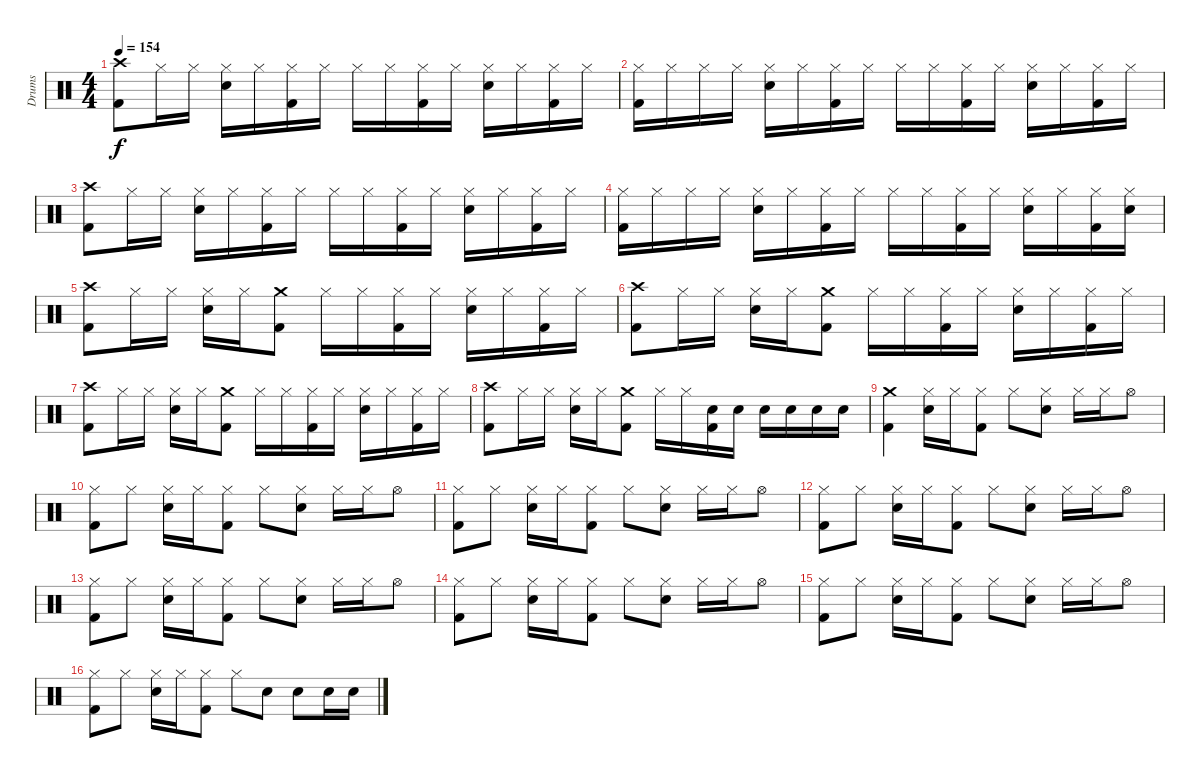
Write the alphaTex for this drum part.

\track ("Drums" "Drums") {instrument percussion}
\staff {score}
\articulation defaults
\ts (4 4)
\tempo 154
\clef neutral
\ks c
("Crash high (hit)" "Kick (hit) 2").8{dy f} "Hi-Hat (closed)".16 "Hi-Hat (closed)".16 ("Hi-Hat (closed)" "Electric Snare (hit)").16 "Hi-Hat (closed)".16 ("Kick (hit) 2" "Hi-Hat (closed)").16 "Hi-Hat (closed)".16 "Hi-Hat (closed)".16 "Hi-Hat (closed)".16 ("Kick (hit) 2" "Hi-Hat (closed)").16 "Hi-Hat (closed)".16 ("Electric Snare (hit)" "Hi-Hat (closed)").16 "Hi-Hat (closed)".16 ("Kick (hit) 2" "Hi-Hat (closed)").16 "Hi-Hat (closed)".16 |
("Hi-Hat (closed)" "Kick (hit) 2").16 "Hi-Hat (closed)".16 "Hi-Hat (closed)".16 "Hi-Hat (closed)".16 ("Hi-Hat (closed)" "Electric Snare (hit)").16 "Hi-Hat (closed)".16 ("Kick (hit) 2" "Hi-Hat (closed)").16 "Hi-Hat (closed)".16 "Hi-Hat (closed)".16 "Hi-Hat (closed)".16 ("Kick (hit) 2" "Hi-Hat (closed)").16 "Hi-Hat (closed)".16 ("Electric Snare (hit)" "Hi-Hat (closed)").16 "Hi-Hat (closed)".16 ("Kick (hit) 2" "Hi-Hat (closed)").16 "Hi-Hat (closed)".16 |
("Crash high (hit)" "Kick (hit) 2").8 "Hi-Hat (closed)".16 "Hi-Hat (closed)".16 ("Hi-Hat (closed)" "Electric Snare (hit)").16 "Hi-Hat (closed)".16 ("Kick (hit) 2" "Hi-Hat (closed)").16 "Hi-Hat (closed)".16 "Hi-Hat (closed)".16 "Hi-Hat (closed)".16 ("Kick (hit) 2" "Hi-Hat (closed)").16 "Hi-Hat (closed)".16 ("Electric Snare (hit)" "Hi-Hat (closed)").16 "Hi-Hat (closed)".16 ("Kick (hit) 2" "Hi-Hat (closed)").16 "Hi-Hat (closed)".16 |
("Hi-Hat (closed)" "Kick (hit) 2").16 "Hi-Hat (closed)".16 "Hi-Hat (closed)".16 "Hi-Hat (closed)".16 ("Hi-Hat (closed)" "Electric Snare (hit)").16 "Hi-Hat (closed)".16 ("Kick (hit) 2" "Hi-Hat (closed)").16 "Hi-Hat (closed)".16 "Hi-Hat (closed)".16 "Hi-Hat (closed)".16 ("Kick (hit) 2" "Hi-Hat (closed)").16 "Hi-Hat (closed)".16 ("Hi-Hat (closed)" "Electric Snare (hit)").16 "Hi-Hat (closed)".16 ("Hi-Hat (closed)" "Kick (hit) 2").16 ("Electric Snare (hit)" "Hi-Hat (closed)").16 |
("Crash high (hit)" "Kick (hit) 2").8 "Hi-Hat (closed)".16 "Hi-Hat (closed)".16 ("Hi-Hat (closed)" "Electric Snare (hit)").16 "Hi-Hat (closed)".16 ("Crash medium (hit)" "Kick (hit) 2").8 "Hi-Hat (closed)".16 "Hi-Hat (closed)".16 ("Kick (hit) 2" "Hi-Hat (closed)").16 "Hi-Hat (closed)".16 ("Electric Snare (hit)" "Hi-Hat (closed)").16 "Hi-Hat (closed)".16 ("Kick (hit) 2" "Hi-Hat (closed)").16 "Hi-Hat (closed)".16 |
("Crash high (hit)" "Kick (hit) 2").8 "Hi-Hat (closed)".16 "Hi-Hat (closed)".16 ("Hi-Hat (closed)" "Electric Snare (hit)").16 "Hi-Hat (closed)".16 ("Crash medium (hit)" "Kick (hit) 2").8 "Hi-Hat (closed)".16 "Hi-Hat (closed)".16 ("Kick (hit) 2" "Hi-Hat (closed)").16 "Hi-Hat (closed)".16 ("Electric Snare (hit)" "Hi-Hat (closed)").16 "Hi-Hat (closed)".16 ("Kick (hit) 2" "Hi-Hat (closed)").16 "Hi-Hat (closed)".16 |
("Crash high (hit)" "Kick (hit) 2").8 "Hi-Hat (closed)".16 "Hi-Hat (closed)".16 ("Hi-Hat (closed)" "Electric Snare (hit)").16 "Hi-Hat (closed)".16 ("Crash medium (hit)" "Kick (hit) 2").8 "Hi-Hat (closed)".16 "Hi-Hat (closed)".16 ("Kick (hit) 2" "Hi-Hat (closed)").16 "Hi-Hat (closed)".16 ("Electric Snare (hit)" "Hi-Hat (closed)").16 "Hi-Hat (closed)".16 ("Kick (hit) 2" "Hi-Hat (closed)").16 "Hi-Hat (closed)".16 |
("Crash high (hit)" "Kick (hit) 2").8 "Hi-Hat (closed)".16 "Hi-Hat (closed)".16 ("Hi-Hat (closed)" "Electric Snare (hit)").16 "Hi-Hat (closed)".16 ("Crash medium (hit)" "Kick (hit) 2").8 "Hi-Hat (closed)".16 "Hi-Hat (closed)".16 ("Kick (hit) 2" "Electric Snare (hit)").16 "Electric Snare (hit)".16 "Electric Snare (hit)".16 "Electric Snare (hit)".16 "Electric Snare (hit)".16 "Electric Snare (hit)".16 |
("Kick (hit) 2" "Crash medium (hit)").4 ("Hi-Hat (closed)" "Electric Snare (hit)").16 "Hi-Hat (closed)".16 ("Hi-Hat (closed)" "Kick (hit) 2").8 "Hi-Hat (closed)".8 ("Hi-Hat (closed)" "Electric Snare (hit)").8 "Hi-Hat (closed)".16 "Hi-Hat (closed)".16 "Hi-Hat (open)".8 |
("Hi-Hat (closed)" "Kick (hit) 2").8 "Hi-Hat (closed)".8 ("Hi-Hat (closed)" "Electric Snare (hit)").16 "Hi-Hat (closed)".16 ("Hi-Hat (closed)" "Kick (hit) 2").8 "Hi-Hat (closed)".8 ("Hi-Hat (closed)" "Electric Snare (hit)").8 "Hi-Hat (closed)".16 "Hi-Hat (closed)".16 "Hi-Hat (open)".8 |
("Hi-Hat (closed)" "Kick (hit) 2").8 "Hi-Hat (closed)".8 ("Hi-Hat (closed)" "Electric Snare (hit)").16 "Hi-Hat (closed)".16 ("Hi-Hat (closed)" "Kick (hit) 2").8 "Hi-Hat (closed)".8 ("Hi-Hat (closed)" "Electric Snare (hit)").8 "Hi-Hat (closed)".16 "Hi-Hat (closed)".16 "Hi-Hat (open)".8 |
("Hi-Hat (closed)" "Kick (hit) 2").8 "Hi-Hat (closed)".8 ("Hi-Hat (closed)" "Electric Snare (hit)").16 "Hi-Hat (closed)".16 ("Hi-Hat (closed)" "Kick (hit) 2").8 "Hi-Hat (closed)".8 ("Hi-Hat (closed)" "Electric Snare (hit)").8 "Hi-Hat (closed)".16 "Hi-Hat (closed)".16 "Hi-Hat (open)".8 |
("Hi-Hat (closed)" "Kick (hit) 2").8 "Hi-Hat (closed)".8 ("Hi-Hat (closed)" "Electric Snare (hit)").16 "Hi-Hat (closed)".16 ("Hi-Hat (closed)" "Kick (hit) 2").8 "Hi-Hat (closed)".8 ("Hi-Hat (closed)" "Electric Snare (hit)").8 "Hi-Hat (closed)".16 "Hi-Hat (closed)".16 "Hi-Hat (open)".8 |
("Hi-Hat (closed)" "Kick (hit) 2").8 "Hi-Hat (closed)".8 ("Hi-Hat (closed)" "Electric Snare (hit)").16 "Hi-Hat (closed)".16 ("Hi-Hat (closed)" "Kick (hit) 2").8 "Hi-Hat (closed)".8 ("Hi-Hat (closed)" "Electric Snare (hit)").8 "Hi-Hat (closed)".16 "Hi-Hat (closed)".16 "Hi-Hat (open)".8 |
("Hi-Hat (closed)" "Kick (hit) 2").8 "Hi-Hat (closed)".8 ("Hi-Hat (closed)" "Electric Snare (hit)").16 "Hi-Hat (closed)".16 ("Hi-Hat (closed)" "Kick (hit) 2").8 "Hi-Hat (closed)".8 ("Hi-Hat (closed)" "Electric Snare (hit)").8 "Hi-Hat (closed)".16 "Hi-Hat (closed)".16 "Hi-Hat (open)".8 |
("Hi-Hat (closed)" "Kick (hit) 2").8 "Hi-Hat (closed)".8 ("Hi-Hat (closed)" "Electric Snare (hit)").16 "Hi-Hat (closed)".16 ("Kick (hit) 2" "Hi-Hat (closed)").8 "Hi-Hat (closed)".8 "Electric Snare (hit)".8 "Electric Snare (hit)".8 "Electric Snare (hit)".16 "Electric Snare (hit)".16
